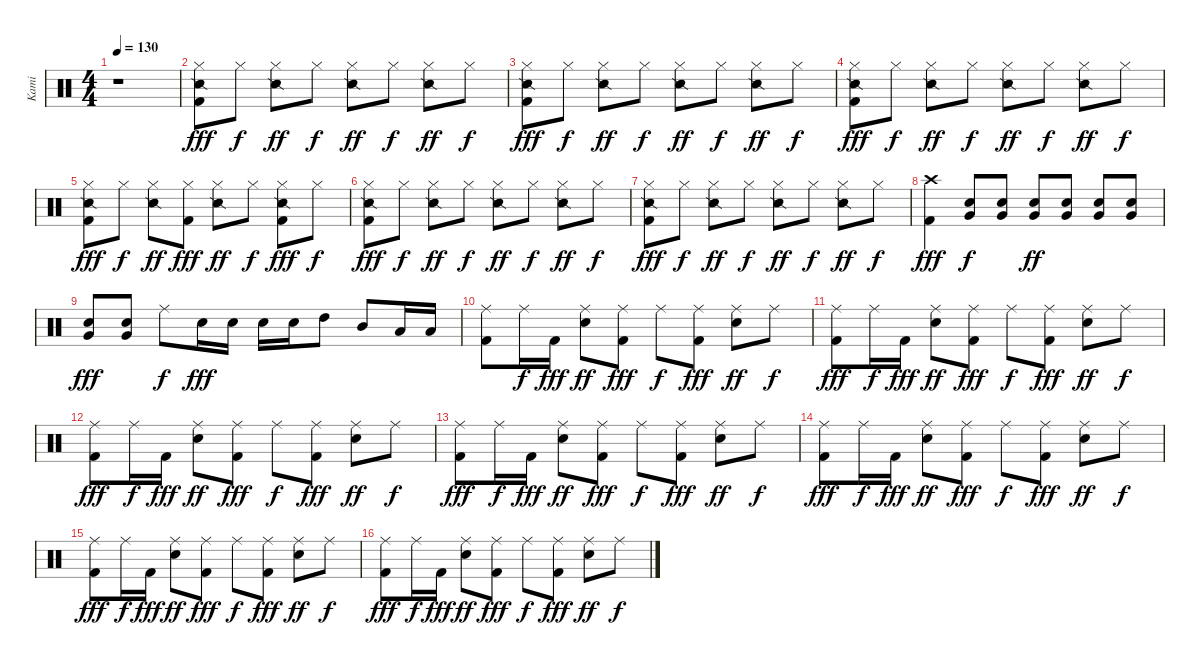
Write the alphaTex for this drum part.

\track ("Kami" "Kami") {instrument percussion}
\staff {score}
\articulation defaults
\ts (4 4)
\tempo 130
\clef neutral
\ks c
r.1{dy fff} |
("Hi-Hat (closed)" "Snare (side stick) 2" "Kick (hit) 2").8 "Hi-Hat (closed)".8{dy f} ("Hi-Hat (closed)" "Snare (side stick) 2").8{dy ff} "Hi-Hat (closed)".8{dy f} ("Hi-Hat (closed)" "Snare (side stick) 2").8{dy ff} "Hi-Hat (closed)".8{dy f} ("Hi-Hat (closed)" "Snare (side stick) 2").8{dy ff} "Hi-Hat (closed)".8{dy f} |
("Hi-Hat (closed)" "Snare (side stick) 2" "Kick (hit) 2").8{dy fff} "Hi-Hat (closed)".8{dy f} ("Hi-Hat (closed)" "Snare (side stick) 2").8{dy ff} "Hi-Hat (closed)".8{dy f} ("Hi-Hat (closed)" "Snare (side stick) 2").8{dy ff} "Hi-Hat (closed)".8{dy f} ("Hi-Hat (closed)" "Snare (side stick) 2").8{dy ff} "Hi-Hat (closed)".8{dy f} |
("Hi-Hat (closed)" "Snare (side stick) 2" "Kick (hit) 2").8{dy fff} "Hi-Hat (closed)".8{dy f} ("Hi-Hat (closed)" "Snare (side stick) 2").8{dy ff} "Hi-Hat (closed)".8{dy f} ("Hi-Hat (closed)" "Snare (side stick) 2").8{dy ff} "Hi-Hat (closed)".8{dy f} ("Hi-Hat (closed)" "Snare (side stick) 2").8{dy ff} "Hi-Hat (closed)".8{dy f} |
("Hi-Hat (closed)" "Snare (side stick) 2" "Kick (hit) 2").8{dy fff} "Hi-Hat (closed)".8{dy f} ("Hi-Hat (closed)" "Snare (side stick) 2").8{dy ff} ("Hi-Hat (closed)" "Kick (hit) 2").8{dy fff} ("Hi-Hat (closed)" "Snare (side stick) 2").8{dy ff} "Hi-Hat (closed)".8{dy f} ("Hi-Hat (closed)" "Snare (side stick) 2" "Kick (hit) 2").8{dy fff} "Hi-Hat (closed)".8{dy f} |
("Hi-Hat (closed)" "Snare (side stick) 2" "Kick (hit) 2").8{dy fff} "Hi-Hat (closed)".8{dy f} ("Hi-Hat (closed)" "Snare (side stick) 2").8{dy ff} "Hi-Hat (closed)".8{dy f} ("Hi-Hat (closed)" "Snare (side stick) 2").8{dy ff} "Hi-Hat (closed)".8{dy f} ("Hi-Hat (closed)" "Snare (side stick) 2").8{dy ff} "Hi-Hat (closed)".8{dy f} |
("Hi-Hat (closed)" "Snare (side stick) 2" "Kick (hit) 2").8{dy fff} "Hi-Hat (closed)".8{dy f} ("Hi-Hat (closed)" "Snare (side stick) 2").8{dy ff} "Hi-Hat (closed)".8{dy f} ("Hi-Hat (closed)" "Snare (side stick) 2").8{dy ff} "Hi-Hat (closed)".8{dy f} ("Hi-Hat (closed)" "Snare (side stick) 2").8{dy ff} "Hi-Hat (closed)".8{dy f} |
("Crash high (hit)" "Kick (hit) 2").4{dy fff} ("Very Low Tom (hit)" "Snare (hit) 2").8{dy f} ("Very Low Tom (hit)" "Snare (hit) 2").8 ("Very Low Tom (hit)" "Snare (hit) 2").8{dy ff} ("Snare (hit) 2" "Very Low Tom (hit)").8 ("Very Low Tom (hit)" "Snare (hit) 2").8 ("Very Low Tom (hit)" "Snare (hit) 2").8 |
("Very Low Tom (hit)" "Snare (hit) 2").8{dy fff} ("Very Low Tom (hit)" "Snare (hit) 2").8 "Ride (middle)".8{dy f} "Snare (hit) 2".16{dy fff} "Snare (hit) 2".16 "Snare (hit) 2".16 "Snare (hit) 2".16 "High Tom (hit)".8 "Mid Tom (hit)".8 "Low Tom (hit)".16 "Low Tom (hit)".16 |
("Ride (middle)" "Kick (hit) 2").8 "Ride (middle)".16{dy f} "Kick (hit) 2".16{dy fff} ("Ride (middle)" "Snare (hit) 2").8{dy ff} ("Ride (middle)" "Kick (hit) 2").8{dy fff} "Ride (middle)".8{dy f} ("Ride (middle)" "Kick (hit) 2").8{dy fff} ("Ride (middle)" "Snare (hit) 2").8{dy ff} "Ride (middle)".8{dy f} |
("Ride (middle)" "Kick (hit) 2").8{dy fff} "Ride (middle)".16{dy f} "Kick (hit) 2".16{dy fff} ("Ride (middle)" "Snare (hit) 2").8{dy ff} ("Ride (middle)" "Kick (hit) 2").8{dy fff} "Ride (middle)".8{dy f} ("Ride (middle)" "Kick (hit) 2").8{dy fff} ("Ride (middle)" "Snare (hit) 2").8{dy ff} "Ride (middle)".8{dy f} |
("Ride (middle)" "Kick (hit) 2").8{dy fff} "Ride (middle)".16{dy f} "Kick (hit) 2".16{dy fff} ("Ride (middle)" "Snare (hit) 2").8{dy ff} ("Ride (middle)" "Kick (hit) 2").8{dy fff} "Ride (middle)".8{dy f} ("Ride (middle)" "Kick (hit) 2").8{dy fff} ("Ride (middle)" "Snare (hit) 2").8{dy ff} "Ride (middle)".8{dy f} |
("Ride (middle)" "Kick (hit) 2").8{dy fff} "Ride (middle)".16{dy f} "Kick (hit) 2".16{dy fff} ("Ride (middle)" "Snare (hit) 2").8{dy ff} ("Ride (middle)" "Kick (hit) 2").8{dy fff} "Ride (middle)".8{dy f} ("Ride (middle)" "Kick (hit) 2").8{dy fff} ("Ride (middle)" "Snare (hit) 2").8{dy ff} "Ride (middle)".8{dy f} |
("Ride (middle)" "Kick (hit) 2").8{dy fff} "Ride (middle)".16{dy f} "Kick (hit) 2".16{dy fff} ("Ride (middle)" "Snare (hit) 2").8{dy ff} ("Ride (middle)" "Kick (hit) 2").8{dy fff} "Ride (middle)".8{dy f} ("Ride (middle)" "Kick (hit) 2").8{dy fff} ("Ride (middle)" "Snare (hit) 2").8{dy ff} "Ride (middle)".8{dy f} |
("Ride (middle)" "Kick (hit) 2").8{dy fff} "Ride (middle)".16{dy f} "Kick (hit) 2".16{dy fff} ("Ride (middle)" "Snare (hit) 2").8{dy ff} ("Ride (middle)" "Kick (hit) 2").8{dy fff} "Ride (middle)".8{dy f} ("Ride (middle)" "Kick (hit) 2").8{dy fff} ("Ride (middle)" "Snare (hit) 2").8{dy ff} "Ride (middle)".8{dy f} |
("Ride (middle)" "Kick (hit) 2").8{dy fff} "Ride (middle)".16{dy f} "Kick (hit) 2".16{dy fff} ("Ride (middle)" "Snare (hit) 2").8{dy ff} ("Ride (middle)" "Kick (hit) 2").8{dy fff} "Ride (middle)".8{dy f} ("Ride (middle)" "Kick (hit) 2").8{dy fff} ("Ride (middle)" "Snare (hit) 2").8{dy ff} "Ride (middle)".8{dy f}
